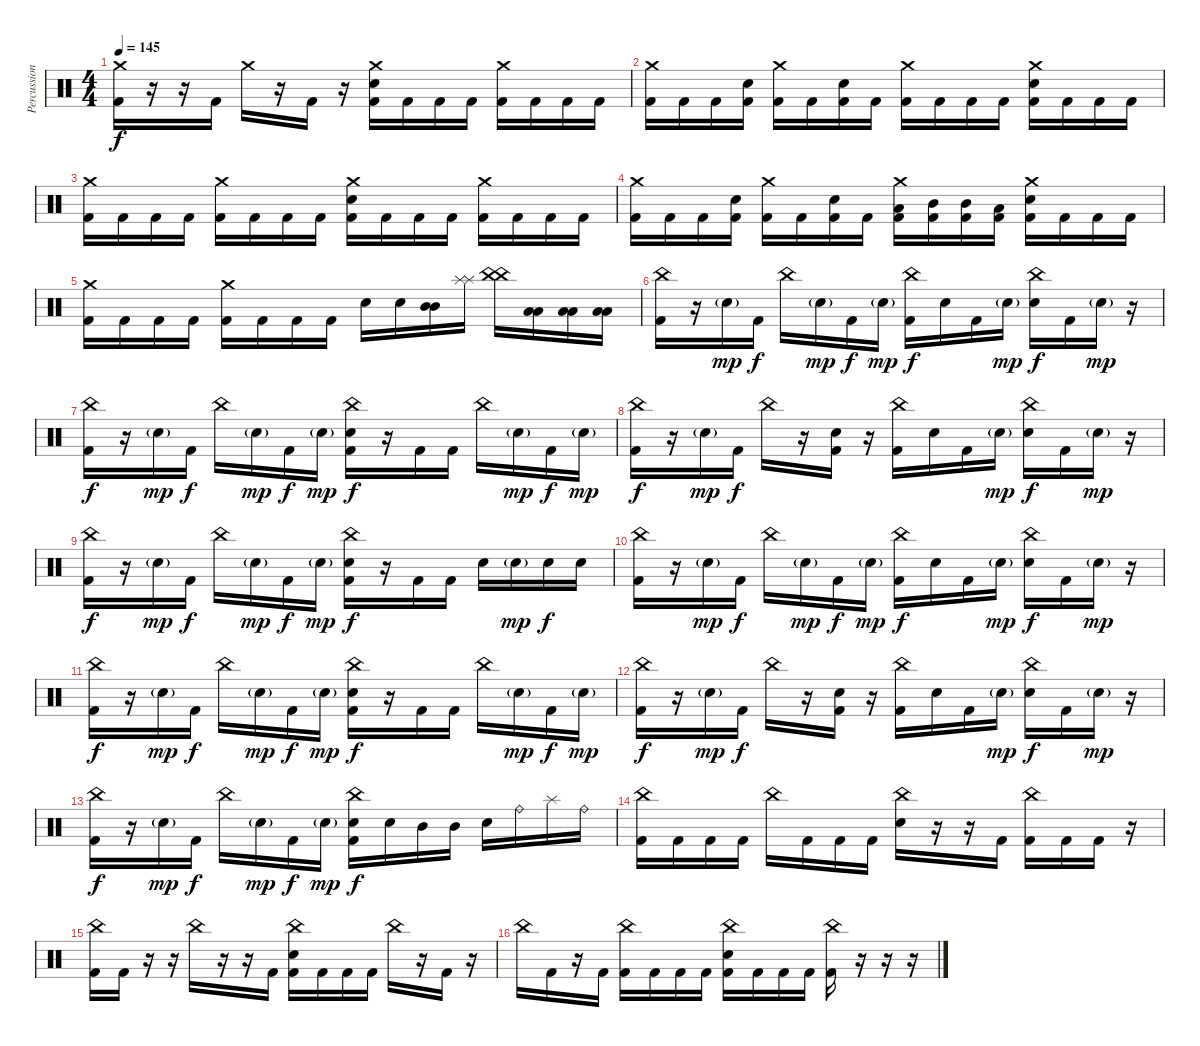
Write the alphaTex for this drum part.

\track ("Percussion" "Percussion") {instrument percussion}
\staff {score}
\articulation defaults
\ts (4 4)
\tempo 145
\clef neutral
\ks c
("Crash medium (hit)" "Kick (hit) 2").16{dy f} r.16 r.16 "Kick (hit) 2".16 "Crash medium (hit)".16 r.16 "Kick (hit) 2".16 r.16 ("Crash medium (hit)" "Electric Snare (hit)" "Kick (hit) 2").16 "Kick (hit) 2".16 "Kick (hit) 2".16 "Kick (hit) 2".16 ("Crash medium (hit)" "Kick (hit) 2").16 "Kick (hit) 2".16 "Kick (hit) 2".16 "Kick (hit) 2".16 |
("Crash medium (hit)" "Kick (hit) 2").16 "Kick (hit) 2".16 "Kick (hit) 2".16 ("Electric Snare (hit)" "Kick (hit) 2").16 ("Crash medium (hit)" "Kick (hit) 2").16 "Kick (hit) 2".16 ("Electric Snare (hit)" "Kick (hit) 2").16 "Kick (hit) 2".16 ("Crash medium (hit)" "Kick (hit) 2").16 "Kick (hit) 2".16 "Kick (hit) 2".16 "Kick (hit) 2".16 ("Crash medium (hit)" "Electric Snare (hit)" "Kick (hit) 2").16 "Kick (hit) 2".16 "Kick (hit) 2".16 "Kick (hit) 2".16 |
("Crash medium (hit)" "Kick (hit) 2").16 "Kick (hit) 2".16 "Kick (hit) 2".16 "Kick (hit) 2".16 ("Crash medium (hit)" "Kick (hit) 2").16 "Kick (hit) 2".16 "Kick (hit) 2".16 "Kick (hit) 2".16 ("Crash medium (hit)" "Electric Snare (hit)" "Kick (hit) 2").16 "Kick (hit) 2".16 "Kick (hit) 2".16 "Kick (hit) 2".16 ("Crash medium (hit)" "Kick (hit) 2").16 "Kick (hit) 2".16 "Kick (hit) 2".16 "Kick (hit) 2".16 |
("Crash medium (hit)" "Kick (hit) 2").16 "Kick (hit) 2".16 "Kick (hit) 2".16 ("Electric Snare (hit)" "Kick (hit) 2").16 ("Crash medium (hit)" "Kick (hit) 2").16 "Kick (hit) 2".16 ("Electric Snare (hit)" "Kick (hit) 2").16 "Kick (hit) 2".16 ("Crash medium (hit)" "Low Tom (hit)" "Kick (hit) 2").16 ("Mid Tom (hit)" "Kick (hit) 2").16 ("Mid Tom (hit)" "Kick (hit) 2").16 ("Low Tom (hit)" "Kick (hit) 2").16 ("Crash medium (hit)" "Electric Snare (hit)" "Kick (hit) 2").16 "Kick (hit) 2".16 "Kick (hit) 2".16 "Kick (hit) 2".16 |
("Crash medium (hit)" "Kick (hit) 2").16 "Kick (hit) 2".16 "Kick (hit) 2".16 "Kick (hit) 2".16 ("Crash medium (hit)" "Kick (hit) 2").16 "Kick (hit) 2".16 "Kick (hit) 2".16 "Kick (hit) 2".16 "Electric Snare (hit)".16 "Electric Snare (hit)".16 ("Mid Tom (hit)" "Mid Tom (hit)").16 ("Splash (hit)" "Splash (hit)").16 ("China (hit)" "China (hit)").16 ("Low Tom (hit)" "Low Tom (hit)").16 ("Low Tom (hit)" "Low Tom (hit)").16 ("Low Tom (hit)" "Low Tom (hit)").16 |
("China (hit)" "Kick (hit) 2").16 r.16 "Electric Snare (hit)"{g}.16{dy mp} "Kick (hit) 2".16{dy f} "China (hit)".16 "Electric Snare (hit)"{g}.16{dy mp} "Kick (hit) 2".16{dy f} "Electric Snare (hit)"{g}.16{dy mp} ("China (hit)" "Kick (hit) 2").16{dy f} "Electric Snare (hit)".16 "Kick (hit) 2".16 "Electric Snare (hit)"{g}.16{dy mp} ("China (hit)" "Electric Snare (hit)").16{dy f} "Kick (hit) 2".16 "Electric Snare (hit)"{g}.16{dy mp} r.16 |
("China (hit)" "Kick (hit) 2").16{dy f} r.16 "Electric Snare (hit)"{g}.16{dy mp} "Kick (hit) 2".16{dy f} "China (hit)".16 "Electric Snare (hit)"{g}.16{dy mp} "Kick (hit) 2".16{dy f} "Electric Snare (hit)"{g}.16{dy mp} ("China (hit)" "Electric Snare (hit)" "Kick (hit) 2").16{dy f} r.16 "Kick (hit) 2".16 "Kick (hit) 2".16 "China (hit)".16 "Electric Snare (hit)"{g}.16{dy mp} "Kick (hit) 2".16{dy f} "Electric Snare (hit)"{g}.16{dy mp} |
("China (hit)" "Kick (hit) 2").16{dy f} r.16 "Electric Snare (hit)"{g}.16{dy mp} "Kick (hit) 2".16{dy f} "China (hit)".16 r.16 ("Electric Snare (hit)" "Kick (hit) 2").16 r.16 ("China (hit)" "Kick (hit) 2").16 "Electric Snare (hit)".16 "Kick (hit) 2".16 "Electric Snare (hit)"{g}.16{dy mp} ("China (hit)" "Electric Snare (hit)").16{dy f} "Kick (hit) 2".16 "Electric Snare (hit)"{g}.16{dy mp} r.16 |
("China (hit)" "Kick (hit) 2").16{dy f} r.16 "Electric Snare (hit)"{g}.16{dy mp} "Kick (hit) 2".16{dy f} "China (hit)".16 "Electric Snare (hit)"{g}.16{dy mp} "Kick (hit) 2".16{dy f} "Electric Snare (hit)"{g}.16{dy mp} ("China (hit)" "Electric Snare (hit)" "Kick (hit) 2").16{dy f} r.16 "Kick (hit) 2".16 "Kick (hit) 2".16 "Electric Snare (hit)".16 "Electric Snare (hit)"{g}.16{dy mp} "Electric Snare (hit)".16{dy f} "Electric Snare (hit)".16 |
("China (hit)" "Kick (hit) 2").16 r.16 "Electric Snare (hit)"{g}.16{dy mp} "Kick (hit) 2".16{dy f} "China (hit)".16 "Electric Snare (hit)"{g}.16{dy mp} "Kick (hit) 2".16{dy f} "Electric Snare (hit)"{g}.16{dy mp} ("China (hit)" "Kick (hit) 2").16{dy f} "Electric Snare (hit)".16 "Kick (hit) 2".16 "Electric Snare (hit)"{g}.16{dy mp} ("China (hit)" "Electric Snare (hit)").16{dy f} "Kick (hit) 2".16 "Electric Snare (hit)"{g}.16{dy mp} r.16 |
("China (hit)" "Kick (hit) 2").16{dy f} r.16 "Electric Snare (hit)"{g}.16{dy mp} "Kick (hit) 2".16{dy f} "China (hit)".16 "Electric Snare (hit)"{g}.16{dy mp} "Kick (hit) 2".16{dy f} "Electric Snare (hit)"{g}.16{dy mp} ("China (hit)" "Electric Snare (hit)" "Kick (hit) 2").16{dy f} r.16 "Kick (hit) 2".16 "Kick (hit) 2".16 "China (hit)".16 "Electric Snare (hit)"{g}.16{dy mp} "Kick (hit) 2".16{dy f} "Electric Snare (hit)"{g}.16{dy mp} |
("China (hit)" "Kick (hit) 2").16{dy f} r.16 "Electric Snare (hit)"{g}.16{dy mp} "Kick (hit) 2".16{dy f} "China (hit)".16 r.16 ("Electric Snare (hit)" "Kick (hit) 2").16 r.16 ("China (hit)" "Kick (hit) 2").16 "Electric Snare (hit)".16 "Kick (hit) 2".16 "Electric Snare (hit)"{g}.16{dy mp} ("China (hit)" "Electric Snare (hit)").16{dy f} "Kick (hit) 2".16 "Electric Snare (hit)"{g}.16{dy mp} r.16 |
("China (hit)" "Kick (hit) 2").16{dy f} r.16 "Electric Snare (hit)"{g}.16{dy mp} "Kick (hit) 2".16{dy f} "China (hit)".16 "Electric Snare (hit)"{g}.16{dy mp} "Kick (hit) 2".16{dy f} "Electric Snare (hit)"{g}.16{dy mp} ("China (hit)" "Electric Snare (hit)" "Kick (hit) 2").16{dy f} "Electric Snare (hit)".16 "Mid Tom (hit)".16 "Mid Tom (hit)".16 "Electric Snare (hit)".16 "Ride (bell)".16 "Splash (hit)".16 "Ride (bell)".16 |
("China (hit)" "Kick (hit) 2").16 "Kick (hit) 2".16 "Kick (hit) 2".16 "Kick (hit) 2".16 "China (hit)".16 "Kick (hit) 2".16 "Kick (hit) 2".16 "Kick (hit) 2".16 ("China (hit)" "Electric Snare (hit)").16 r.16 r.16 "Kick (hit) 2".16 ("China (hit)" "Kick (hit) 2").16 "Kick (hit) 2".16 "Kick (hit) 2".16 r.16 |
("China (hit)" "Kick (hit) 2").16 "Kick (hit) 2".16 r.16 r.16 "China (hit)".16 r.16 r.16 "Kick (hit) 2".16 ("China (hit)" "Electric Snare (hit)" "Kick (hit) 2").16 "Kick (hit) 2".16 "Kick (hit) 2".16 "Kick (hit) 2".16 "China (hit)".16 r.16 "Kick (hit) 2".16 r.16 |
"China (hit)".16 "Kick (hit) 2".16 r.16 "Kick (hit) 2".16 ("China (hit)" "Kick (hit) 2").16 "Kick (hit) 2".16 "Kick (hit) 2".16 "Kick (hit) 2".16 ("China (hit)" "Electric Snare (hit)" "Kick (hit) 2").16 "Kick (hit) 2".16 "Kick (hit) 2".16 "Kick (hit) 2".16 ("China (hit)" "Kick (hit) 2").16 r.16 r.16 r.16
